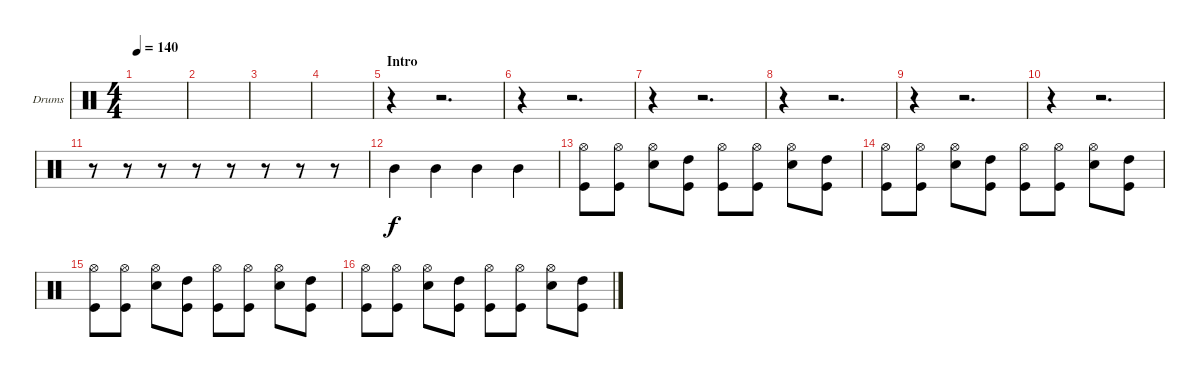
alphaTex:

\bracketExtendMode groupsimilarinstruments
\firstSystemTrackNameOrientation horizontal
\otherSystemsTrackNameOrientation horizontal
\track ("Drumkit" "Drums") {instrument percussion}
\staff {score}
\articulation defaults
\ts (4 4)
\tempo 140
\clef neutral
\ks c
|
|
|
|
\section ("" "Intro")
r.4 r.2{d} |
r.4 r.2{d} |
r.4 r.2{d} |
r.4 r.2{d} |
r.4 r.2{d} |
r.4 r.2{d} |
r.8 r.8 r.8 r.8 r.8 r.8 r.8 r.8 |
"Mid Tom (hit)".4 "Mid Tom (hit)".4 "Mid Tom (hit)".4 "Mid Tom (hit)".4 |
("Hi-Hat (open)" "Kick (hit)").8 ("Hi-Hat (open)" "Kick (hit)").8 ("Hi-Hat (open)" "Snare (hit) 2").8 ("High Tom (hit)" "Kick (hit)").8 ("Hi-Hat (open)" "Kick (hit)").8 ("Hi-Hat (open)" "Kick (hit)").8 ("Hi-Hat (open)" "Snare (hit) 2").8 ("High Tom (hit)" "Kick (hit)").8 |
("Hi-Hat (open)" "Kick (hit)").8 ("Hi-Hat (open)" "Kick (hit)").8 ("Hi-Hat (open)" "Snare (hit) 2").8 ("High Tom (hit)" "Kick (hit)").8 ("Hi-Hat (open)" "Kick (hit)").8 ("Hi-Hat (open)" "Kick (hit)").8 ("Hi-Hat (open)" "Snare (hit) 2").8 ("High Tom (hit)" "Kick (hit)").8 |
("Hi-Hat (open)" "Kick (hit)").8 ("Hi-Hat (open)" "Kick (hit)").8 ("Hi-Hat (open)" "Snare (hit) 2").8 ("High Tom (hit)" "Kick (hit)").8 ("Hi-Hat (open)" "Kick (hit)").8 ("Hi-Hat (open)" "Kick (hit)").8 ("Hi-Hat (open)" "Snare (hit) 2").8 ("High Tom (hit)" "Kick (hit)").8 |
("Hi-Hat (open)" "Kick (hit)").8 ("Hi-Hat (open)" "Kick (hit)").8 ("Hi-Hat (open)" "Snare (hit) 2").8 ("High Tom (hit)" "Kick (hit)").8 ("Hi-Hat (open)" "Kick (hit)").8 ("Hi-Hat (open)" "Kick (hit)").8 ("Hi-Hat (open)" "Snare (hit) 2").8 ("High Tom (hit)" "Kick (hit)").8
